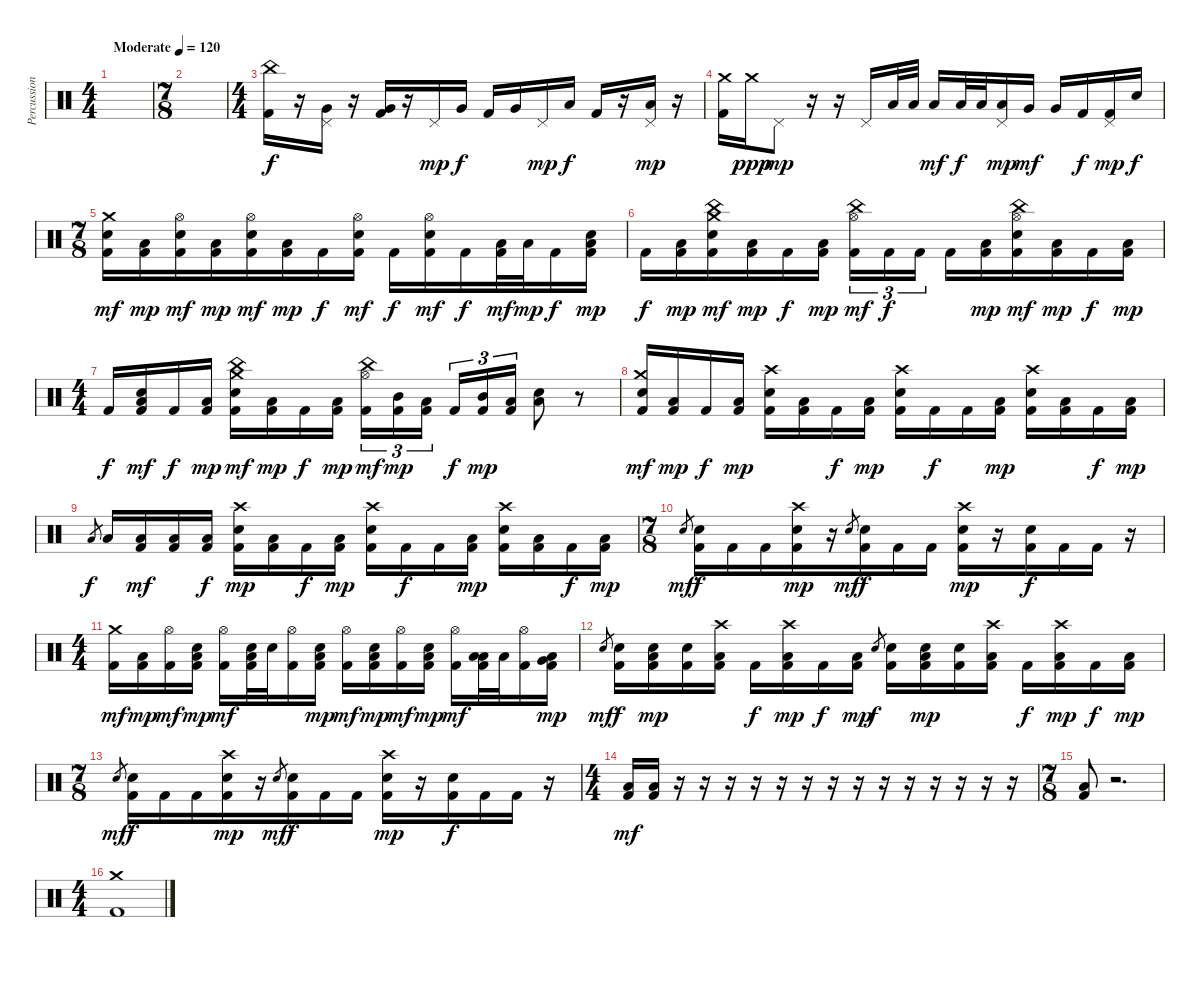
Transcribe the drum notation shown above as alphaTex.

\track ("Percussion" "Percussion") {instrument percussion}
\staff {score}
\articulation defaults
\ts (4 4)
\tempo (120 "Moderate")
\clef neutral
\ks c
|
\ts (7 8)
|
\ts (4 4)
("China (hit)" "Kick (hit) 2").16 r.16 ("Very Low Tom (hit)" "Pedal Hi-Hat (hit)").16 r.16 ("Very Low Tom (hit)" "Kick (hit) 2").16{dy f} r.16 "Pedal Hi-Hat (hit)".16{dy mp} "Very Low Tom (hit)".16{dy f} "Kick (hit) 2".16 "Very Low Tom (hit)".16 "Pedal Hi-Hat (hit)".16{dy mp} "Low Floor Tom (hit)".16{dy f} "Kick (hit) 2".16 r.16 ("Low Tom (hit)" "Pedal Hi-Hat (hit)").16{dy mp} r.16 |
("Crash medium (hit)" "Kick (hit) 2").16 "Crash medium (hit)".16{dy ppp} "Pedal Hi-Hat (hit)".8{dy mp} r.16 r.16 "Pedal Hi-Hat (hit)".16 "Low Tom (hit)".32 "Low Tom (hit)".32 "Low Tom (hit)".16{dy mf} "Low Tom (hit)".32{dy f} "Low Tom (hit)".32 ("Low Tom (hit)" "Pedal Hi-Hat (hit)").16{dy mp} "Very Low Tom (hit)".16{dy mf} "Very Low Tom (hit)".16 "Kick (hit) 2".16{dy f} ("Kick (hit) 2" "Pedal Hi-Hat (hit)").16{dy mp} "Electric Snare (hit)".16{dy f} |
\ts (7 8)
("Crash medium (hit)" "Electric Snare (hit)" "Kick (hit) 2").16{dy mf} ("Low Floor Tom (hit)" "Kick (hit) 2").16{dy mp} ("Hi-Hat (open)" "Electric Snare (hit)" "Kick (hit) 2").16{dy mf} ("Low Floor Tom (hit)" "Kick (hit) 2").16{dy mp} ("Hi-Hat (open)" "Electric Snare (hit)" "Kick (hit) 2").16{dy mf} ("Low Floor Tom (hit)" "Kick (hit) 2").16{dy mp} "Kick (hit) 2".16{dy f} ("Hi-Hat (open)" "Electric Snare (hit)" "Kick (hit) 2").16{dy mf} "Kick (hit) 2".16{dy f} ("Hi-Hat (open)" "Electric Snare (hit)" "Kick (hit) 2").16{dy mf} "Kick (hit) 2".16{dy f} ("Low Floor Tom (hit)" "Kick (hit) 2").32{dy mf} "Low Floor Tom (hit)".32{dy mp} "Kick (hit) 2".16{dy f} ("Low Floor Tom (hit)" "Electric Snare (hit)" "Kick (hit) 2").16{dy mp} |
"Kick (hit) 2".16{dy f} ("Low Floor Tom (hit)" "Kick (hit) 2").16{dy mp} ("China (hit)" "Crash medium (hit)" "Electric Snare (hit)" "Kick (hit) 2").16{dy mf} ("Low Floor Tom (hit)" "Kick (hit) 2").16{dy mp} "Kick (hit) 2".16{dy f} ("Low Floor Tom (hit)" "Kick (hit) 2").16{dy mp} ("China (hit)" "Hi-Hat (open)" "Kick (hit) 2").16{tu (3 2) dy mf} "Kick (hit) 2".16{tu (3 2) dy f} "Kick (hit) 2".16{tu (3 2)} "Kick (hit) 2".16 ("Low Floor Tom (hit)" "Kick (hit) 2").16{dy mp} ("China (hit)" "Hi-Hat (open)" "Electric Snare (hit)" "Kick (hit) 2").16{dy mf} ("Low Floor Tom (hit)" "Kick (hit) 2").16{dy mp} "Kick (hit) 2".16{dy f} ("Low Floor Tom (hit)" "Kick (hit) 2").16{dy mp} |
\ts (4 4)
"Kick (hit) 2".16{dy f} ("Low Floor Tom (hit)" "Electric Snare (hit)" "Kick (hit) 2").16{dy mf} "Kick (hit) 2".16{dy f} ("Low Floor Tom (hit)" "Kick (hit) 2").16{dy mp} ("China (hit)" "Crash medium (hit)" "Electric Snare (hit)" "Kick (hit) 2").16{dy mf} ("Low Floor Tom (hit)" "Kick (hit) 2").16{dy mp} "Kick (hit) 2".16{dy f} ("Low Floor Tom (hit)" "Kick (hit) 2").16{dy mp} ("China (hit)" "Hi-Hat (open)" "Kick (hit) 2").16{tu (3 2) dy mf} ("Mid Tom (hit)" "Kick (hit) 2").16{tu (3 2) dy mp} ("Low Tom (hit)" "Kick (hit) 2").16{tu (3 2) beam splitsecondary} "Kick (hit) 2".16{tu (3 2) dy f} ("Mid Tom (hit)" "Kick (hit) 2").16{tu (3 2) dy mp} ("Low Tom (hit)" "Kick (hit) 2").16{tu (3 2)} ("Low Floor Tom (hit)" "Electric Snare (hit)").8 r.8 |
("Crash medium (hit)" "Electric Snare (hit)" "Kick (hit) 2").16{dy mf} ("Low Floor Tom (hit)" "Kick (hit) 2").16{dy mp} "Kick (hit) 2".16{dy f} ("Low Floor Tom (hit)" "Kick (hit) 2").16{dy mp} ("Crash high (hit)" "Electric Snare (hit)" "Kick (hit) 2").16 ("Low Floor Tom (hit)" "Kick (hit) 2").16 "Kick (hit) 2".16{dy f} ("Low Floor Tom (hit)" "Kick (hit) 2").16{dy mp} ("Crash high (hit)" "Electric Snare (hit)" "Kick (hit) 2").16 "Kick (hit) 2".16{dy f} "Kick (hit) 2".16 ("Low Floor Tom (hit)" "Kick (hit) 2").16{dy mp} ("Crash high (hit)" "Electric Snare (hit)" "Kick (hit) 2").16 ("Low Floor Tom (hit)" "Kick (hit) 2").16 "Kick (hit) 2".16{dy f} ("Low Floor Tom (hit)" "Kick (hit) 2").16{dy mp} |
"Low Floor Tom (hit)".8{gr dy f} "Low Floor Tom (hit)".16 ("Low Floor Tom (hit)" "Kick (hit) 2").16{dy mf} ("Low Floor Tom (hit)" "Kick (hit) 2").16 ("Low Floor Tom (hit)" "Kick (hit) 2").16{dy f} ("Crash high (hit)" "Electric Snare (hit)" "Kick (hit) 2").16{dy mp} ("Low Floor Tom (hit)" "Kick (hit) 2").16 "Kick (hit) 2".16{dy f} ("Low Floor Tom (hit)" "Kick (hit) 2").16{dy mp} ("Crash high (hit)" "Electric Snare (hit)" "Kick (hit) 2").16 "Kick (hit) 2".16{dy f} "Kick (hit) 2".16 ("Low Floor Tom (hit)" "Kick (hit) 2").16{dy mp} ("Crash high (hit)" "Electric Snare (hit)" "Kick (hit) 2").16 ("Low Floor Tom (hit)" "Kick (hit) 2").16 "Kick (hit) 2".16{dy f} ("Low Floor Tom (hit)" "Kick (hit) 2").16{dy mp} |
\ts (7 8)
"Electric Snare (hit)".8{gr dy mf} ("Electric Snare (hit)" "Kick (hit) 2").16{dy f} "Kick (hit) 2".16 "Kick (hit) 2".16 ("Crash high (hit)" "Electric Snare (hit)" "Kick (hit) 2").16{dy mp} r.16 "Electric Snare (hit)".8{gr dy mf} ("Electric Snare (hit)" "Kick (hit) 2").16{dy f} "Kick (hit) 2".16 "Kick (hit) 2".16 ("Crash high (hit)" "Electric Snare (hit)" "Kick (hit) 2").16{dy mp} r.16 ("Electric Snare (hit)" "Kick (hit) 2").16{dy f} "Kick (hit) 2".16 "Kick (hit) 2".16 r.16 |
\ts (4 4)
("Crash medium (hit)" "Kick (hit) 2").16{dy mf} ("Low Floor Tom (hit)" "Kick (hit) 2").16{dy mp} ("Hi-Hat (open)" "Kick (hit) 2").16{dy mf} ("Low Floor Tom (hit)" "Electric Snare (hit)" "Kick (hit) 2").16{dy mp} ("Hi-Hat (open)" "Kick (hit) 2").16{dy mf} ("Low Floor Tom (hit)" "Electric Snare (hit)" "Kick (hit) 2").32 "Electric Snare (hit)".32 ("Hi-Hat (open)" "Kick (hit) 2").16 ("Low Floor Tom (hit)" "Electric Snare (hit)" "Kick (hit) 2").16{dy mp} ("Hi-Hat (open)" "Kick (hit) 2").16{dy mf} ("Low Floor Tom (hit)" "Electric Snare (hit)" "Kick (hit) 2").16{dy mp} ("Hi-Hat (open)" "Kick (hit) 2").16{dy mf} ("Low Floor Tom (hit)" "Electric Snare (hit)" "Kick (hit) 2").16{dy mp} ("Hi-Hat (open)" "Kick (hit) 2").16{dy mf} ("Low Floor Tom (hit)" "Low Tom (hit)" "Kick (hit) 2").32 "Low Tom (hit)".32 ("Hi-Hat (open)" "Kick (hit) 2").16 ("Low Floor Tom (hit)" "Very Low Tom (hit)" "Kick (hit) 2").16{dy mp} |
"Electric Snare (hit)".8{gr dy mf} ("Electric Snare (hit)" "Kick (hit) 2").16{dy f} ("Low Floor Tom (hit)" "Electric Snare (hit)" "Kick (hit) 2").16{dy mp} ("Electric Snare (hit)" "Kick (hit) 2").16 ("Crash high (hit)" "Low Floor Tom (hit)" "Kick (hit) 2").16 "Kick (hit) 2".16{dy f} ("Crash high (hit)" "Low Floor Tom (hit)" "Kick (hit) 2").16{dy mp} "Kick (hit) 2".16{dy f} ("Low Floor Tom (hit)" "Kick (hit) 2").16{dy mp} "Electric Snare (hit)".8{gr dy f} ("Electric Snare (hit)" "Kick (hit) 2").16 ("Low Floor Tom (hit)" "Electric Snare (hit)" "Kick (hit) 2").16{dy mp} ("Electric Snare (hit)" "Kick (hit) 2").16 ("Crash high (hit)" "Low Floor Tom (hit)" "Kick (hit) 2").16 "Kick (hit) 2".16{dy f} ("Crash high (hit)" "Low Floor Tom (hit)" "Kick (hit) 2").16{dy mp} "Kick (hit) 2".16{dy f} ("Low Floor Tom (hit)" "Kick (hit) 2").16{dy mp} |
\ts (7 8)
"Electric Snare (hit)".8{gr dy mf} ("Electric Snare (hit)" "Kick (hit) 2").16{dy f} "Kick (hit) 2".16 "Kick (hit) 2".16 ("Crash high (hit)" "Electric Snare (hit)" "Kick (hit) 2").16{dy mp} r.16 "Electric Snare (hit)".8{gr dy mf} ("Electric Snare (hit)" "Kick (hit) 2").16{dy f} "Kick (hit) 2".16 "Kick (hit) 2".16 ("Crash high (hit)" "Electric Snare (hit)" "Kick (hit) 2").16{dy mp} r.16 ("Electric Snare (hit)" "Kick (hit) 2").16{dy f} "Kick (hit) 2".16 "Kick (hit) 2".16 r.16 |
\ts (4 4)
("Low Floor Tom (hit)" "Kick (hit) 2").16{dy mf} ("Low Floor Tom (hit)" "Kick (hit) 2").16 r.16 r.16 r.16 r.16 r.16 r.16 r.16 r.16 r.16 r.16 r.16 r.16 r.16 r.16 |
\ts (7 8)
("Low Floor Tom (hit)" "Kick (hit) 2").8 r.2{d} |
\ts (4 4)
("Crash medium (hit)" "Kick (hit) 2").1
